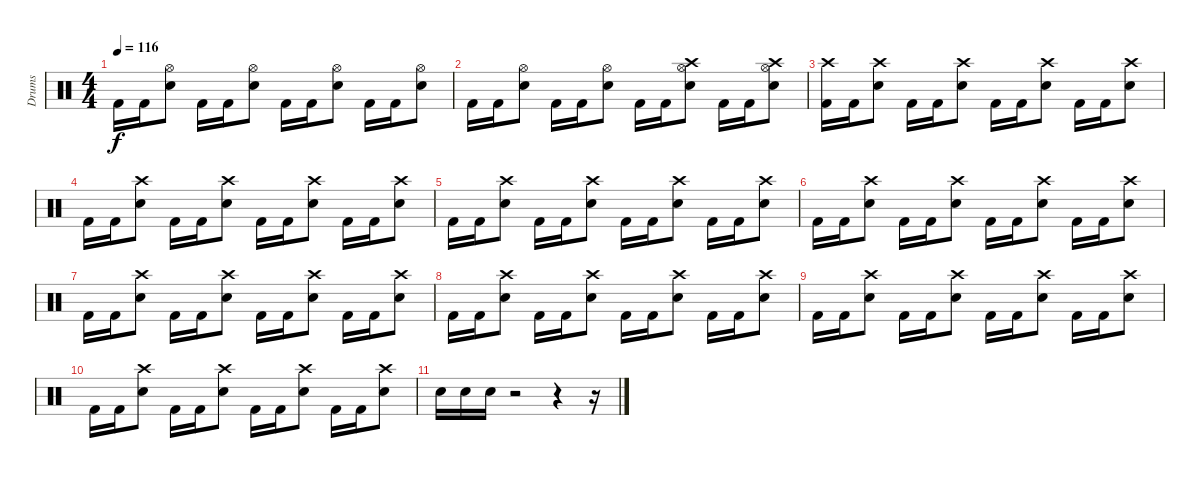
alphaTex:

\track ("Drums" "Drums") {instrument percussion}
\staff {score}
\articulation defaults
\ts (4 4)
\tempo 116
\clef neutral
\ks c "Kick (hit) 2".16{dy f volume 13} "Kick (hit) 2".16
("Hi-Hat (open)" "Snare (hit) 2").8 "Kick (hit) 2".16 "Kick (hit) 2".16 ("Hi-Hat (open)" "Snare (hit) 2").8 "Kick (hit) 2".16 "Kick (hit) 2".16 ("Hi-Hat (open)" "Snare (hit) 2").8 "Kick (hit) 2".16 "Kick (hit) 2".16 ("Hi-Hat (open)" "Snare (hit) 2").8 |
"Kick (hit) 2".16{volume 13} "Kick (hit) 2".16 ("Hi-Hat (open)" "Snare (hit) 2").8 "Kick (hit) 2".16 "Kick (hit) 2".16 ("Hi-Hat (open)" "Snare (hit) 2").8 "Kick (hit) 2".16 "Kick (hit) 2".16 ("Crash high (hit)" "Hi-Hat (open)" "Snare (hit) 2").8 "Kick (hit) 2".16 "Kick (hit) 2".16 ("Crash high (hit)" "Hi-Hat (open)" "Snare (hit) 2").8 |
("Crash high (hit)" "Kick (hit) 2").16{volume 13} "Kick (hit) 2".16 ("Crash high (hit)" "Snare (hit) 2").8 "Kick (hit) 2".16 "Kick (hit) 2".16 ("Crash high (hit)" "Snare (hit) 2").8 "Kick (hit) 2".16 "Kick (hit) 2".16 ("Crash high (hit)" "Snare (hit) 2").8 "Kick (hit) 2".16 "Kick (hit) 2".16 ("Crash high (hit)" "Snare (hit) 2").8 |
"Kick (hit) 2".16{volume 13} "Kick (hit) 2".16 ("Crash high (hit)" "Snare (hit) 2").8 "Kick (hit) 2".16 "Kick (hit) 2".16 ("Crash high (hit)" "Snare (hit) 2").8 "Kick (hit) 2".16 "Kick (hit) 2".16 ("Crash high (hit)" "Snare (hit) 2").8 "Kick (hit) 2".16 "Kick (hit) 2".16 ("Crash high (hit)" "Snare (hit) 2").8 |
"Kick (hit) 2".16{volume 13} "Kick (hit) 2".16 ("Crash high (hit)" "Snare (hit) 2").8 "Kick (hit) 2".16 "Kick (hit) 2".16 ("Crash high (hit)" "Snare (hit) 2").8 "Kick (hit) 2".16 "Kick (hit) 2".16 ("Crash high (hit)" "Snare (hit) 2").8 "Kick (hit) 2".16 "Kick (hit) 2".16 ("Crash high (hit)" "Snare (hit) 2").8 |
"Kick (hit) 2".16{volume 13} "Kick (hit) 2".16 ("Crash high (hit)" "Snare (hit) 2").8 "Kick (hit) 2".16 "Kick (hit) 2".16 ("Crash high (hit)" "Snare (hit) 2").8 "Kick (hit) 2".16 "Kick (hit) 2".16 ("Crash high (hit)" "Snare (hit) 2").8 "Kick (hit) 2".16 "Kick (hit) 2".16 ("Crash high (hit)" "Snare (hit) 2").8 |
"Kick (hit) 2".16{volume 13} "Kick (hit) 2".16 ("Crash high (hit)" "Snare (hit) 2").8 "Kick (hit) 2".16 "Kick (hit) 2".16 ("Crash high (hit)" "Snare (hit) 2").8 "Kick (hit) 2".16 "Kick (hit) 2".16 ("Crash high (hit)" "Snare (hit) 2").8 "Kick (hit) 2".16 "Kick (hit) 2".16 ("Crash high (hit)" "Snare (hit) 2").8 |
"Kick (hit) 2".16{volume 13} "Kick (hit) 2".16 ("Crash high (hit)" "Snare (hit) 2").8 "Kick (hit) 2".16 "Kick (hit) 2".16 ("Crash high (hit)" "Snare (hit) 2").8 "Kick (hit) 2".16 "Kick (hit) 2".16 ("Crash high (hit)" "Snare (hit) 2").8 "Kick (hit) 2".16 "Kick (hit) 2".16 ("Crash high (hit)" "Snare (hit) 2").8 |
"Kick (hit) 2".16{volume 13} "Kick (hit) 2".16 ("Crash high (hit)" "Snare (hit) 2").8 "Kick (hit) 2".16 "Kick (hit) 2".16 ("Crash high (hit)" "Snare (hit) 2").8 "Kick (hit) 2".16 "Kick (hit) 2".16 ("Crash high (hit)" "Snare (hit) 2").8 "Kick (hit) 2".16 "Kick (hit) 2".16 ("Crash high (hit)" "Snare (hit) 2").8 |
"Kick (hit) 2".16{volume 13} "Kick (hit) 2".16 ("Crash high (hit)" "Snare (hit) 2").8 "Kick (hit) 2".16 "Kick (hit) 2".16 ("Crash high (hit)" "Snare (hit) 2").8 "Kick (hit) 2".16 "Kick (hit) 2".16 ("Crash high (hit)" "Snare (hit) 2").8 "Kick (hit) 2".16 "Kick (hit) 2".16 ("Crash high (hit)" "Snare (hit) 2").8 |
"Snare (hit) 2".16 "Snare (hit) 2".16 "Snare (hit) 2".16 r.2 r.4 r.16
